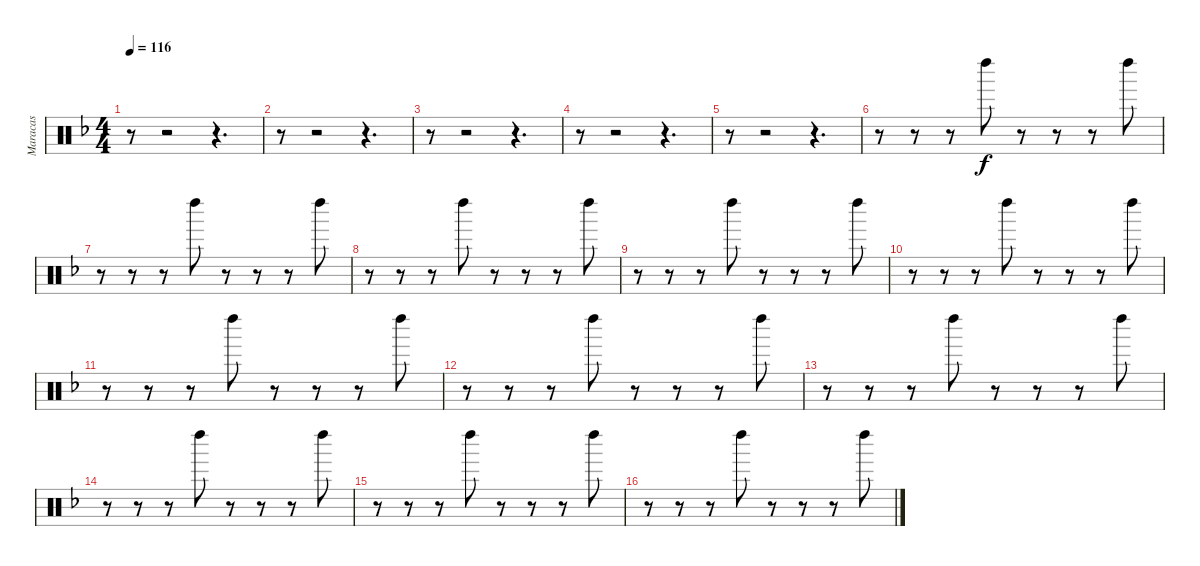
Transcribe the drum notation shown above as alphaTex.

\track ("Maracas" "Maracas") {instrument percussion}
\staff {score}
\articulation defaults
\ts (4 4)
\tempo 116
\clef neutral
\ks dminor
r.8{dy f} r.2 r.4{d} |
r.8 r.2 r.4{d} |
r.8 r.2 r.4{d} |
r.8 r.2 r.4{d} |
r.8 r.2 r.4{d} |
r.8 r.8 r.8 "Left Maraca (hit)".8 r.8 r.8 r.8 "Left Maraca (hit)".8 |
r.8 r.8 r.8 "Left Maraca (hit)".8 r.8 r.8 r.8 "Left Maraca (hit)".8 |
r.8 r.8 r.8 "Left Maraca (hit)".8 r.8 r.8 r.8 "Left Maraca (hit)".8 |
r.8 r.8 r.8 "Left Maraca (hit)".8 r.8 r.8 r.8 "Left Maraca (hit)".8 |
r.8 r.8 r.8 "Left Maraca (hit)".8 r.8 r.8 r.8 "Left Maraca (hit)".8 |
r.8 r.8 r.8 "Left Maraca (hit)".8 r.8 r.8 r.8 "Left Maraca (hit)".8 |
r.8 r.8 r.8 "Left Maraca (hit)".8 r.8 r.8 r.8 "Left Maraca (hit)".8 |
r.8 r.8 r.8 "Left Maraca (hit)".8 r.8 r.8 r.8 "Left Maraca (hit)".8 |
r.8 r.8 r.8 "Left Maraca (hit)".8 r.8 r.8 r.8 "Left Maraca (hit)".8 |
r.8 r.8 r.8 "Left Maraca (hit)".8 r.8 r.8 r.8 "Left Maraca (hit)".8 |
r.8 r.8 r.8 "Left Maraca (hit)".8 r.8 r.8 r.8 "Left Maraca (hit)".8
